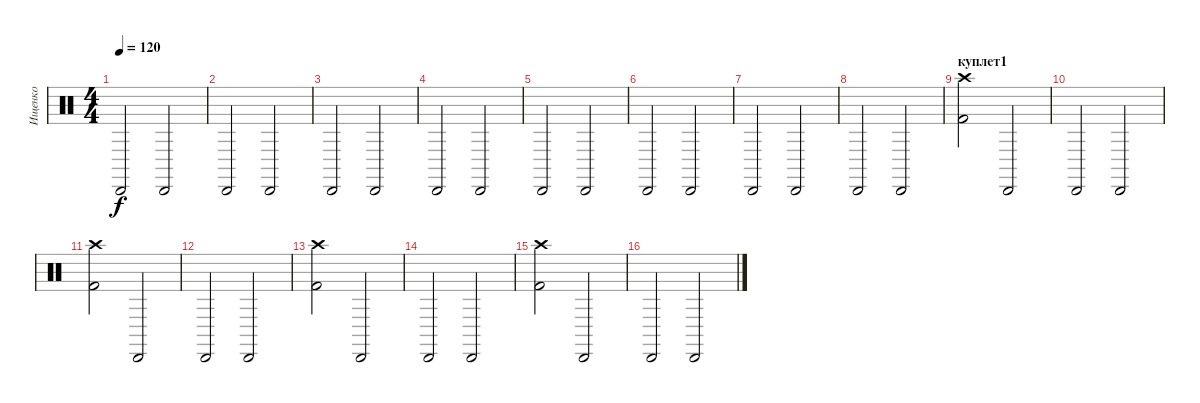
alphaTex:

\track ("Ищенко" "Ищенко") {instrument percussion}
\staff {score}
\articulation defaults
\ts (4 4)
\tempo 120
\clef neutral
\ks c "Cabasa (hit)".2{dy f} "Cabasa (hit)".2
|
"Cabasa (hit)".2 "Cabasa (hit)".2 |
"Cabasa (hit)".2 "Cabasa (hit)".2 |
"Cabasa (hit)".2 "Cabasa (hit)".2 |
"Cabasa (hit)".2 "Cabasa (hit)".2 |
"Cabasa (hit)".2 "Cabasa (hit)".2 |
"Cabasa (hit)".2 "Cabasa (hit)".2 |
"Cabasa (hit)".2 "Cabasa (hit)".2 |
\section ("" "куплет1")
("Crash high (hit)" "Kick (hit) 2").2 "Cabasa (hit)".2 |
"Cabasa (hit)".2 "Cabasa (hit)".2 |
("Crash high (hit)" "Kick (hit) 2").2 "Cabasa (hit)".2 |
"Cabasa (hit)".2 "Cabasa (hit)".2 |
("Crash high (hit)" "Kick (hit) 2").2 "Cabasa (hit)".2 |
"Cabasa (hit)".2 "Cabasa (hit)".2 |
("Crash high (hit)" "Kick (hit) 2").2 "Cabasa (hit)".2 |
"Cabasa (hit)".2 "Cabasa (hit)".2
